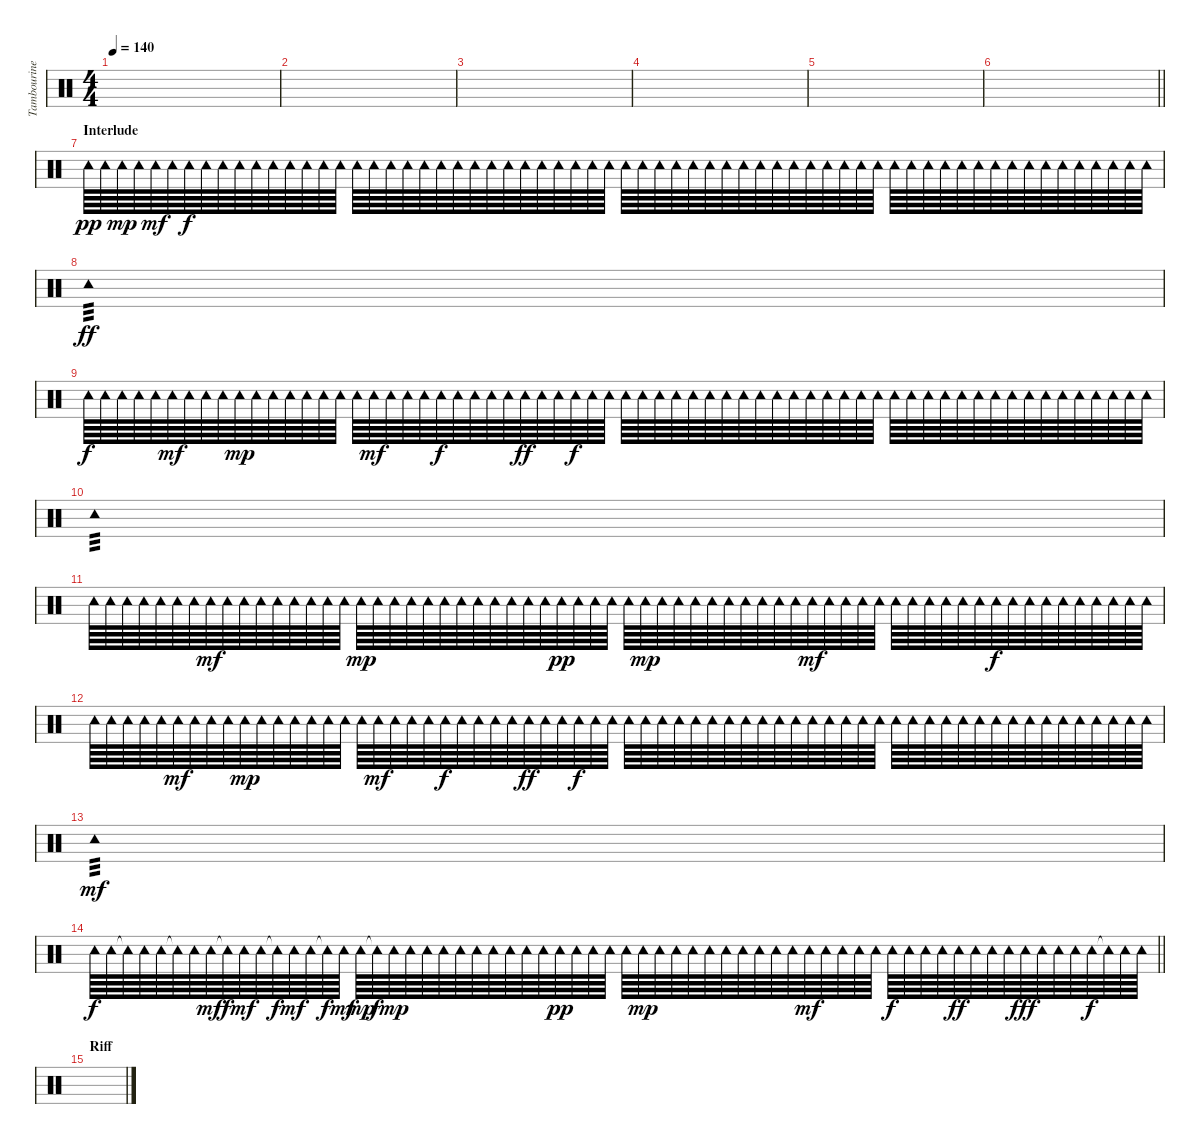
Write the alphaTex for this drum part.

\track ("Tambourine" "Tambourine") {instrument percussion}
\staff {score}
\articulation defaults
\ts (4 4)
\tempo 140
\clef neutral
\ks c
|
|
|
|
|
\barLineRight lightlight
|
\section ("" "Interlude")
"Tambourine (hit)".64{dy pp} "Tambourine (hit)".64 "Tambourine (hit)".64{dy mp} "Tambourine (hit)".64 "Tambourine (hit)".64{dy mf} "Tambourine (hit)".64 "Tambourine (hit)".64{dy f} "Tambourine (hit)".64 "Tambourine (hit)".64 "Tambourine (hit)".64 "Tambourine (hit)".64 "Tambourine (hit)".64 "Tambourine (hit)".64 "Tambourine (hit)".64 "Tambourine (hit)".64 "Tambourine (hit)".64 "Tambourine (hit)".64 "Tambourine (hit)".64 "Tambourine (hit)".64 "Tambourine (hit)".64 "Tambourine (hit)".64 "Tambourine (hit)".64 "Tambourine (hit)".64 "Tambourine (hit)".64 "Tambourine (hit)".64 "Tambourine (hit)".64 "Tambourine (hit)".64 "Tambourine (hit)".64 "Tambourine (hit)".64 "Tambourine (hit)".64 "Tambourine (hit)".64 "Tambourine (hit)".64 "Tambourine (hit)".64 "Tambourine (hit)".64 "Tambourine (hit)".64 "Tambourine (hit)".64 "Tambourine (hit)".64 "Tambourine (hit)".64 "Tambourine (hit)".64 "Tambourine (hit)".64 "Tambourine (hit)".64 "Tambourine (hit)".64 "Tambourine (hit)".64 "Tambourine (hit)".64 "Tambourine (hit)".64 "Tambourine (hit)".64 "Tambourine (hit)".64 "Tambourine (hit)".64 "Tambourine (hit)".64 "Tambourine (hit)".64 "Tambourine (hit)".64 "Tambourine (hit)".64 "Tambourine (hit)".64 "Tambourine (hit)".64 "Tambourine (hit)".64 "Tambourine (hit)".64 "Tambourine (hit)".64 "Tambourine (hit)".64 "Tambourine (hit)".64 "Tambourine (hit)".64 "Tambourine (hit)".64 "Tambourine (hit)".64 "Tambourine (hit)".64 "Tambourine (hit)".64 |
"Tambourine (hit)".1{tp 3 dy ff} |
"Tambourine (hit)".64{dy f} "Tambourine (hit)".64 "Tambourine (hit)".64 "Tambourine (hit)".64 "Tambourine (hit)".64 "Tambourine (hit)".64{dy mf} "Tambourine (hit)".64 "Tambourine (hit)".64 "Tambourine (hit)".64 "Tambourine (hit)".64{dy mp} "Tambourine (hit)".64 "Tambourine (hit)".64 "Tambourine (hit)".64 "Tambourine (hit)".64 "Tambourine (hit)".64 "Tambourine (hit)".64 "Tambourine (hit)".64 "Tambourine (hit)".64{dy mf} "Tambourine (hit)".64 "Tambourine (hit)".64 "Tambourine (hit)".64 "Tambourine (hit)".64{dy f} "Tambourine (hit)".64 "Tambourine (hit)".64 "Tambourine (hit)".64 "Tambourine (hit)".64 "Tambourine (hit)".64{dy ff} "Tambourine (hit)".64 "Tambourine (hit)".64 "Tambourine (hit)".64{dy f} "Tambourine (hit)".64 "Tambourine (hit)".64 "Tambourine (hit)".64 "Tambourine (hit)".64 "Tambourine (hit)".64 "Tambourine (hit)".64 "Tambourine (hit)".64 "Tambourine (hit)".64 "Tambourine (hit)".64 "Tambourine (hit)".64 "Tambourine (hit)".64 "Tambourine (hit)".64 "Tambourine (hit)".64 "Tambourine (hit)".64 "Tambourine (hit)".64 "Tambourine (hit)".64 "Tambourine (hit)".64 "Tambourine (hit)".64 "Tambourine (hit)".64 "Tambourine (hit)".64 "Tambourine (hit)".64 "Tambourine (hit)".64 "Tambourine (hit)".64 "Tambourine (hit)".64 "Tambourine (hit)".64 "Tambourine (hit)".64 "Tambourine (hit)".64 "Tambourine (hit)".64 "Tambourine (hit)".64 "Tambourine (hit)".64 "Tambourine (hit)".64 "Tambourine (hit)".64 "Tambourine (hit)".64 "Tambourine (hit)".64 |
"Tambourine (hit)".1{tp 3} |
"Tambourine (hit)".64 "Tambourine (hit)".64 "Tambourine (hit)".64 "Tambourine (hit)".64 "Tambourine (hit)".64 "Tambourine (hit)".64 "Tambourine (hit)".64 "Tambourine (hit)".64{dy mf} "Tambourine (hit)".64 "Tambourine (hit)".64 "Tambourine (hit)".64 "Tambourine (hit)".64 "Tambourine (hit)".64 "Tambourine (hit)".64 "Tambourine (hit)".64 "Tambourine (hit)".64 "Tambourine (hit)".64{dy mp} "Tambourine (hit)".64 "Tambourine (hit)".64 "Tambourine (hit)".64 "Tambourine (hit)".64 "Tambourine (hit)".64 "Tambourine (hit)".64 "Tambourine (hit)".64 "Tambourine (hit)".64 "Tambourine (hit)".64 "Tambourine (hit)".64 "Tambourine (hit)".64 "Tambourine (hit)".64{dy pp} "Tambourine (hit)".64 "Tambourine (hit)".64 "Tambourine (hit)".64 "Tambourine (hit)".64 "Tambourine (hit)".64{dy mp} "Tambourine (hit)".64 "Tambourine (hit)".64 "Tambourine (hit)".64 "Tambourine (hit)".64 "Tambourine (hit)".64 "Tambourine (hit)".64 "Tambourine (hit)".64 "Tambourine (hit)".64 "Tambourine (hit)".64 "Tambourine (hit)".64{dy mf} "Tambourine (hit)".64 "Tambourine (hit)".64 "Tambourine (hit)".64 "Tambourine (hit)".64 "Tambourine (hit)".64 "Tambourine (hit)".64 "Tambourine (hit)".64 "Tambourine (hit)".64 "Tambourine (hit)".64 "Tambourine (hit)".64 "Tambourine (hit)".64{dy f} "Tambourine (hit)".64 "Tambourine (hit)".64 "Tambourine (hit)".64 "Tambourine (hit)".64 "Tambourine (hit)".64 "Tambourine (hit)".64 "Tambourine (hit)".64 "Tambourine (hit)".64 "Tambourine (hit)".64 |
"Tambourine (hit)".64 "Tambourine (hit)".64 "Tambourine (hit)".64 "Tambourine (hit)".64 "Tambourine (hit)".64 "Tambourine (hit)".64{dy mf} "Tambourine (hit)".64 "Tambourine (hit)".64 "Tambourine (hit)".64 "Tambourine (hit)".64{dy mp} "Tambourine (hit)".64 "Tambourine (hit)".64 "Tambourine (hit)".64 "Tambourine (hit)".64 "Tambourine (hit)".64 "Tambourine (hit)".64 "Tambourine (hit)".64 "Tambourine (hit)".64{dy mf} "Tambourine (hit)".64 "Tambourine (hit)".64 "Tambourine (hit)".64 "Tambourine (hit)".64{dy f} "Tambourine (hit)".64 "Tambourine (hit)".64 "Tambourine (hit)".64 "Tambourine (hit)".64 "Tambourine (hit)".64{dy ff} "Tambourine (hit)".64 "Tambourine (hit)".64 "Tambourine (hit)".64{dy f} "Tambourine (hit)".64 "Tambourine (hit)".64 "Tambourine (hit)".64 "Tambourine (hit)".64 "Tambourine (hit)".64 "Tambourine (hit)".64 "Tambourine (hit)".64 "Tambourine (hit)".64 "Tambourine (hit)".64 "Tambourine (hit)".64 "Tambourine (hit)".64 "Tambourine (hit)".64 "Tambourine (hit)".64 "Tambourine (hit)".64 "Tambourine (hit)".64 "Tambourine (hit)".64 "Tambourine (hit)".64 "Tambourine (hit)".64 "Tambourine (hit)".64 "Tambourine (hit)".64 "Tambourine (hit)".64 "Tambourine (hit)".64 "Tambourine (hit)".64 "Tambourine (hit)".64 "Tambourine (hit)".64 "Tambourine (hit)".64 "Tambourine (hit)".64 "Tambourine (hit)".64 "Tambourine (hit)".64 "Tambourine (hit)".64 "Tambourine (hit)".64 "Tambourine (hit)".64 "Tambourine (hit)".64 "Tambourine (hit)".64 |
"Tambourine (hit)".1{tp 3 dy mf} |
\barLineRight lightlight "Tambourine (hit)".64{dy f} "Tambourine (hit)".64 "Tambourine (hit)"{t}.64 "Tambourine (hit)".64 "Tambourine (hit)".64 "Tambourine (hit)"{t}.64 "Tambourine (hit)".64 "Tambourine (hit)".64{dy mf} "Tambourine (hit)"{t}.64{dy f} "Tambourine (hit)".64{dy mf} "Tambourine (hit)".64 "Tambourine (hit)"{t}.64{dy f} "Tambourine (hit)".64{dy mf} "Tambourine (hit)".64 "Tambourine (hit)"{t}.64{dy f} "Tambourine (hit)".64{dy mf} "Tambourine (hit)".64{dy mp} "Tambourine (hit)"{t}.64{dy f} "Tambourine (hit)".64{dy mp} "Tambourine (hit)".64 "Tambourine (hit)".64 "Tambourine (hit)".64 "Tambourine (hit)".64 "Tambourine (hit)".64 "Tambourine (hit)".64 "Tambourine (hit)".64 "Tambourine (hit)".64 "Tambourine (hit)".64 "Tambourine (hit)".64{dy pp} "Tambourine (hit)".64 "Tambourine (hit)".64 "Tambourine (hit)".64 "Tambourine (hit)".64 "Tambourine (hit)".64{dy mp} "Tambourine (hit)".64 "Tambourine (hit)".64 "Tambourine (hit)".64 "Tambourine (hit)".64 "Tambourine (hit)".64 "Tambourine (hit)".64 "Tambourine (hit)".64 "Tambourine (hit)".64 "Tambourine (hit)".64 "Tambourine (hit)".64{dy mf} "Tambourine (hit)".64 "Tambourine (hit)".64 "Tambourine (hit)".64 "Tambourine (hit)".64 "Tambourine (hit)".64{dy f} "Tambourine (hit)".64 "Tambourine (hit)".64 "Tambourine (hit)".64 "Tambourine (hit)".64{dy ff} "Tambourine (hit)".64 "Tambourine (hit)".64 "Tambourine (hit)".64 "Tambourine (hit)".64{dy fff} "Tambourine (hit)".64 "Tambourine (hit)".64 "Tambourine (hit)".64 "Tambourine (hit)".64{dy f} "Tambourine (hit)"{t}.64 "Tambourine (hit)".64 "Tambourine (hit)".64
|
\section ("" "Riff")
